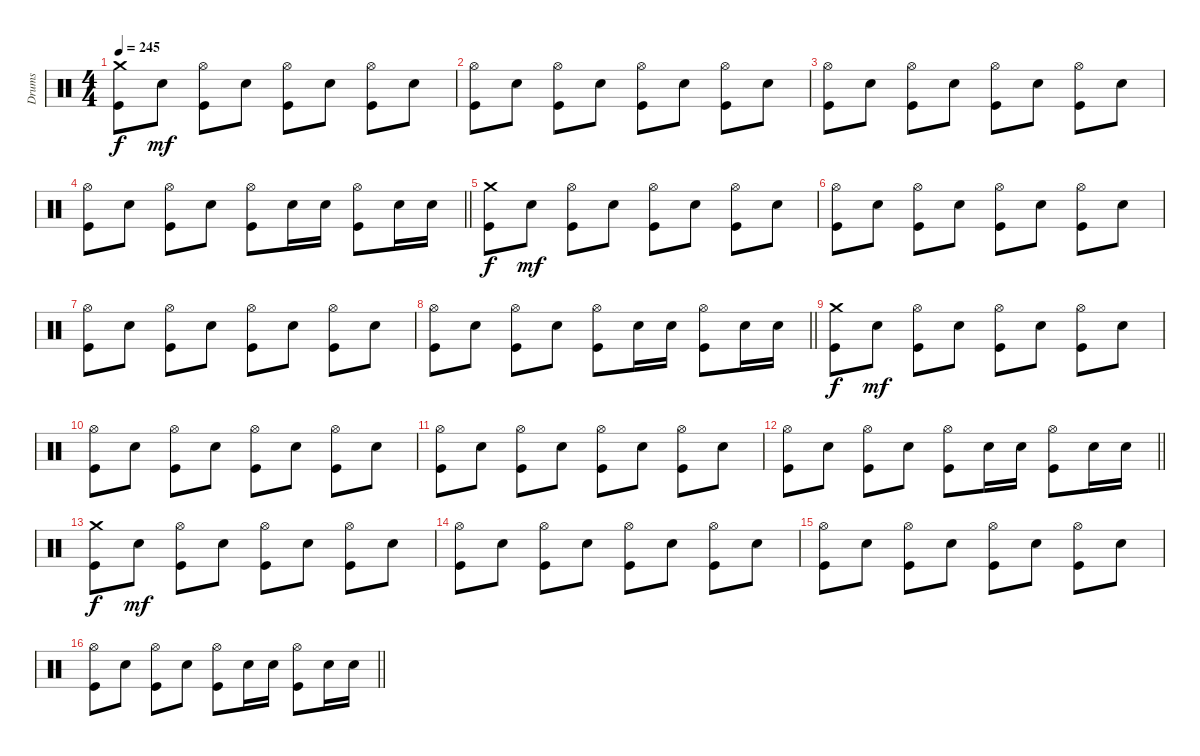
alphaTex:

\track ("Drums" "Drums") {instrument percussion}
\staff {score}
\articulation defaults
\ts (4 4)
\tempo 245
\clef neutral
\ks c
("Crash medium (hit)" "Kick (hit)").8{dy f} "Snare (hit) 2".8{dy mf} ("Hi-Hat (open)" "Kick (hit)").8 "Snare (hit) 2".8 ("Hi-Hat (open)" "Kick (hit)").8 "Snare (hit) 2".8 ("Hi-Hat (open)" "Kick (hit)").8 "Snare (hit) 2".8 |
("Hi-Hat (open)" "Kick (hit)").8 "Snare (hit) 2".8 ("Hi-Hat (open)" "Kick (hit)").8 "Snare (hit) 2".8 ("Hi-Hat (open)" "Kick (hit)").8 "Snare (hit) 2".8 ("Hi-Hat (open)" "Kick (hit)").8 "Snare (hit) 2".8 |
("Hi-Hat (open)" "Kick (hit)").8 "Snare (hit) 2".8 ("Hi-Hat (open)" "Kick (hit)").8 "Snare (hit) 2".8 ("Hi-Hat (open)" "Kick (hit)").8 "Snare (hit) 2".8 ("Hi-Hat (open)" "Kick (hit)").8 "Snare (hit) 2".8 |
\barLineRight lightlight
("Hi-Hat (open)" "Kick (hit)").8 "Snare (hit) 2".8 ("Hi-Hat (open)" "Kick (hit)").8 "Snare (hit) 2".8 ("Hi-Hat (open)" "Kick (hit)").8 "Snare (hit) 2".16 "Snare (hit) 2".16 ("Hi-Hat (open)" "Kick (hit)").8 "Snare (hit) 2".16 "Snare (hit) 2".16 |
("Crash medium (hit)" "Kick (hit)").8{dy f} "Snare (hit) 2".8{dy mf} ("Hi-Hat (open)" "Kick (hit)").8 "Snare (hit) 2".8 ("Hi-Hat (open)" "Kick (hit)").8 "Snare (hit) 2".8 ("Hi-Hat (open)" "Kick (hit)").8 "Snare (hit) 2".8 |
("Hi-Hat (open)" "Kick (hit)").8 "Snare (hit) 2".8 ("Hi-Hat (open)" "Kick (hit)").8 "Snare (hit) 2".8 ("Hi-Hat (open)" "Kick (hit)").8 "Snare (hit) 2".8 ("Hi-Hat (open)" "Kick (hit)").8 "Snare (hit) 2".8 |
("Hi-Hat (open)" "Kick (hit)").8 "Snare (hit) 2".8 ("Hi-Hat (open)" "Kick (hit)").8 "Snare (hit) 2".8 ("Hi-Hat (open)" "Kick (hit)").8 "Snare (hit) 2".8 ("Hi-Hat (open)" "Kick (hit)").8 "Snare (hit) 2".8 |
\barLineRight lightlight
("Hi-Hat (open)" "Kick (hit)").8 "Snare (hit) 2".8 ("Hi-Hat (open)" "Kick (hit)").8 "Snare (hit) 2".8 ("Hi-Hat (open)" "Kick (hit)").8 "Snare (hit) 2".16 "Snare (hit) 2".16 ("Hi-Hat (open)" "Kick (hit)").8 "Snare (hit) 2".16 "Snare (hit) 2".16 |
("Crash medium (hit)" "Kick (hit)").8{dy f} "Snare (hit) 2".8{dy mf} ("Hi-Hat (open)" "Kick (hit)").8 "Snare (hit) 2".8 ("Hi-Hat (open)" "Kick (hit)").8 "Snare (hit) 2".8 ("Hi-Hat (open)" "Kick (hit)").8 "Snare (hit) 2".8 |
("Hi-Hat (open)" "Kick (hit)").8 "Snare (hit) 2".8 ("Hi-Hat (open)" "Kick (hit)").8 "Snare (hit) 2".8 ("Hi-Hat (open)" "Kick (hit)").8 "Snare (hit) 2".8 ("Hi-Hat (open)" "Kick (hit)").8 "Snare (hit) 2".8 |
("Hi-Hat (open)" "Kick (hit)").8 "Snare (hit) 2".8 ("Hi-Hat (open)" "Kick (hit)").8 "Snare (hit) 2".8 ("Hi-Hat (open)" "Kick (hit)").8 "Snare (hit) 2".8 ("Hi-Hat (open)" "Kick (hit)").8 "Snare (hit) 2".8 |
\barLineRight lightlight
("Hi-Hat (open)" "Kick (hit)").8 "Snare (hit) 2".8 ("Hi-Hat (open)" "Kick (hit)").8 "Snare (hit) 2".8 ("Hi-Hat (open)" "Kick (hit)").8 "Snare (hit) 2".16 "Snare (hit) 2".16 ("Hi-Hat (open)" "Kick (hit)").8 "Snare (hit) 2".16 "Snare (hit) 2".16 |
("Crash medium (hit)" "Kick (hit)").8{dy f} "Snare (hit) 2".8{dy mf} ("Hi-Hat (open)" "Kick (hit)").8 "Snare (hit) 2".8 ("Hi-Hat (open)" "Kick (hit)").8 "Snare (hit) 2".8 ("Hi-Hat (open)" "Kick (hit)").8 "Snare (hit) 2".8 |
("Hi-Hat (open)" "Kick (hit)").8 "Snare (hit) 2".8 ("Hi-Hat (open)" "Kick (hit)").8 "Snare (hit) 2".8 ("Hi-Hat (open)" "Kick (hit)").8 "Snare (hit) 2".8 ("Hi-Hat (open)" "Kick (hit)").8 "Snare (hit) 2".8 |
("Hi-Hat (open)" "Kick (hit)").8 "Snare (hit) 2".8 ("Hi-Hat (open)" "Kick (hit)").8 "Snare (hit) 2".8 ("Hi-Hat (open)" "Kick (hit)").8 "Snare (hit) 2".8 ("Hi-Hat (open)" "Kick (hit)").8 "Snare (hit) 2".8 |
\barLineRight lightlight
("Hi-Hat (open)" "Kick (hit)").8 "Snare (hit) 2".8 ("Hi-Hat (open)" "Kick (hit)").8 "Snare (hit) 2".8 ("Hi-Hat (open)" "Kick (hit)").8 "Snare (hit) 2".16 "Snare (hit) 2".16 ("Hi-Hat (open)" "Kick (hit)").8 "Snare (hit) 2".16 "Snare (hit) 2".16
